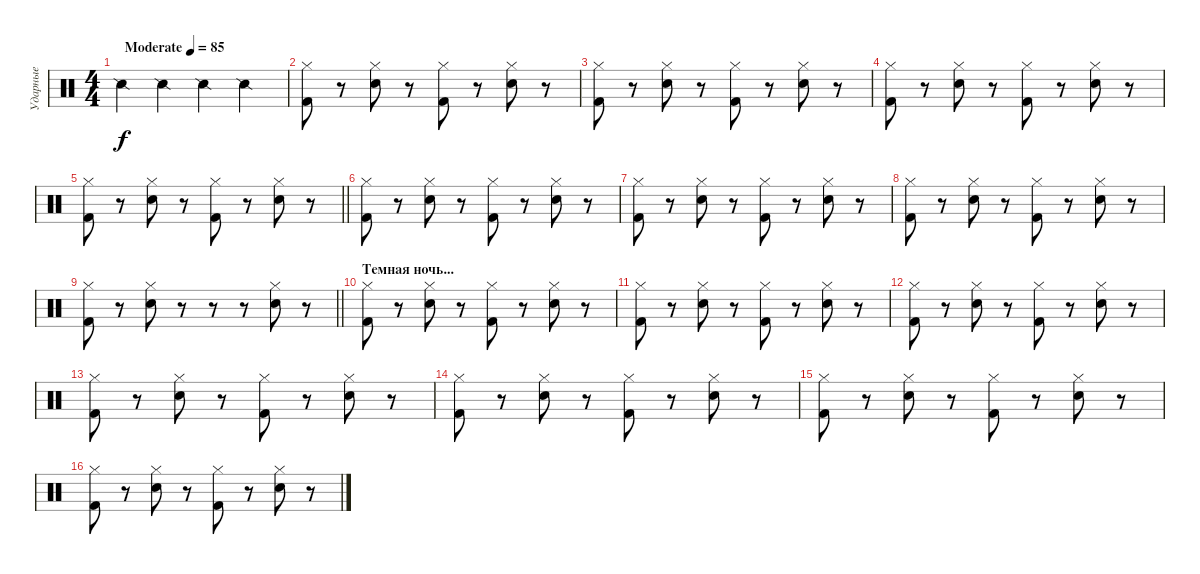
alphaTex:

\track ("Ударные" "Ударные") {instrument percussion}
\staff {score}
\articulation defaults
\ts (4 4)
\tempo (85 "Moderate")
\clef neutral
\ks c "Snare (side stick) 2".4{dy f} "Snare (side stick) 2".4 "Snare (side stick) 2".4 "Snare (side stick) 2".4
|
("Kick (hit) 2" "Hi-Hat (closed)").8 r.8 ("Electric Snare (hit)" "Hi-Hat (closed)").8 r.8 ("Kick (hit) 2" "Hi-Hat (closed)").8 r.8 ("Electric Snare (hit)" "Hi-Hat (closed)").8 r.8 |
("Kick (hit) 2" "Hi-Hat (closed)").8 r.8 ("Electric Snare (hit)" "Hi-Hat (closed)").8 r.8 ("Kick (hit) 2" "Hi-Hat (closed)").8 r.8 ("Electric Snare (hit)" "Hi-Hat (closed)").8 r.8 |
("Kick (hit) 2" "Hi-Hat (closed)").8 r.8 ("Electric Snare (hit)" "Hi-Hat (closed)").8 r.8 ("Kick (hit) 2" "Hi-Hat (closed)").8 r.8 ("Electric Snare (hit)" "Hi-Hat (closed)").8 r.8 |
\barLineRight lightlight
("Kick (hit) 2" "Hi-Hat (closed)").8 r.8 ("Electric Snare (hit)" "Hi-Hat (closed)").8 r.8 ("Kick (hit) 2" "Hi-Hat (closed)").8 r.8 ("Electric Snare (hit)" "Hi-Hat (closed)").8 r.8 |
("Kick (hit) 2" "Hi-Hat (closed)").8 r.8 ("Electric Snare (hit)" "Hi-Hat (closed)").8 r.8 ("Kick (hit) 2" "Hi-Hat (closed)").8 r.8 ("Electric Snare (hit)" "Hi-Hat (closed)").8 r.8 |
("Kick (hit) 2" "Hi-Hat (closed)").8 r.8 ("Electric Snare (hit)" "Hi-Hat (closed)").8 r.8 ("Kick (hit) 2" "Hi-Hat (closed)").8 r.8 ("Electric Snare (hit)" "Hi-Hat (closed)").8 r.8 |
("Kick (hit) 2" "Hi-Hat (closed)").8 r.8 ("Electric Snare (hit)" "Hi-Hat (closed)").8 r.8 ("Kick (hit) 2" "Hi-Hat (closed)").8 r.8 ("Electric Snare (hit)" "Hi-Hat (closed)").8 r.8 |
\barLineRight lightlight
("Kick (hit) 2" "Hi-Hat (closed)").8 r.8 ("Electric Snare (hit)" "Hi-Hat (closed)").8 r.8 r.8 r.8 ("Electric Snare (hit)" "Hi-Hat (closed)").8 r.8 |
\section ("" "Темная ночь...")
("Kick (hit) 2" "Hi-Hat (closed)").8 r.8 ("Electric Snare (hit)" "Hi-Hat (closed)").8 r.8 ("Kick (hit) 2" "Hi-Hat (closed)").8 r.8 ("Electric Snare (hit)" "Hi-Hat (closed)").8 r.8 |
("Kick (hit) 2" "Hi-Hat (closed)").8 r.8 ("Electric Snare (hit)" "Hi-Hat (closed)").8 r.8 ("Kick (hit) 2" "Hi-Hat (closed)").8 r.8 ("Electric Snare (hit)" "Hi-Hat (closed)").8 r.8 |
("Kick (hit) 2" "Hi-Hat (closed)").8 r.8 ("Electric Snare (hit)" "Hi-Hat (closed)").8 r.8 ("Kick (hit) 2" "Hi-Hat (closed)").8 r.8 ("Electric Snare (hit)" "Hi-Hat (closed)").8 r.8 |
("Kick (hit) 2" "Hi-Hat (closed)").8 r.8 ("Electric Snare (hit)" "Hi-Hat (closed)").8 r.8 ("Kick (hit) 2" "Hi-Hat (closed)").8 r.8 ("Electric Snare (hit)" "Hi-Hat (closed)").8 r.8 |
("Kick (hit) 2" "Hi-Hat (closed)").8 r.8 ("Electric Snare (hit)" "Hi-Hat (closed)").8 r.8 ("Kick (hit) 2" "Hi-Hat (closed)").8 r.8 ("Electric Snare (hit)" "Hi-Hat (closed)").8 r.8 |
("Kick (hit) 2" "Hi-Hat (closed)").8 r.8 ("Electric Snare (hit)" "Hi-Hat (closed)").8 r.8 ("Kick (hit) 2" "Hi-Hat (closed)").8 r.8 ("Electric Snare (hit)" "Hi-Hat (closed)").8 r.8 |
("Kick (hit) 2" "Hi-Hat (closed)").8 r.8 ("Electric Snare (hit)" "Hi-Hat (closed)").8 r.8 ("Kick (hit) 2" "Hi-Hat (closed)").8 r.8 ("Electric Snare (hit)" "Hi-Hat (closed)").8 r.8
